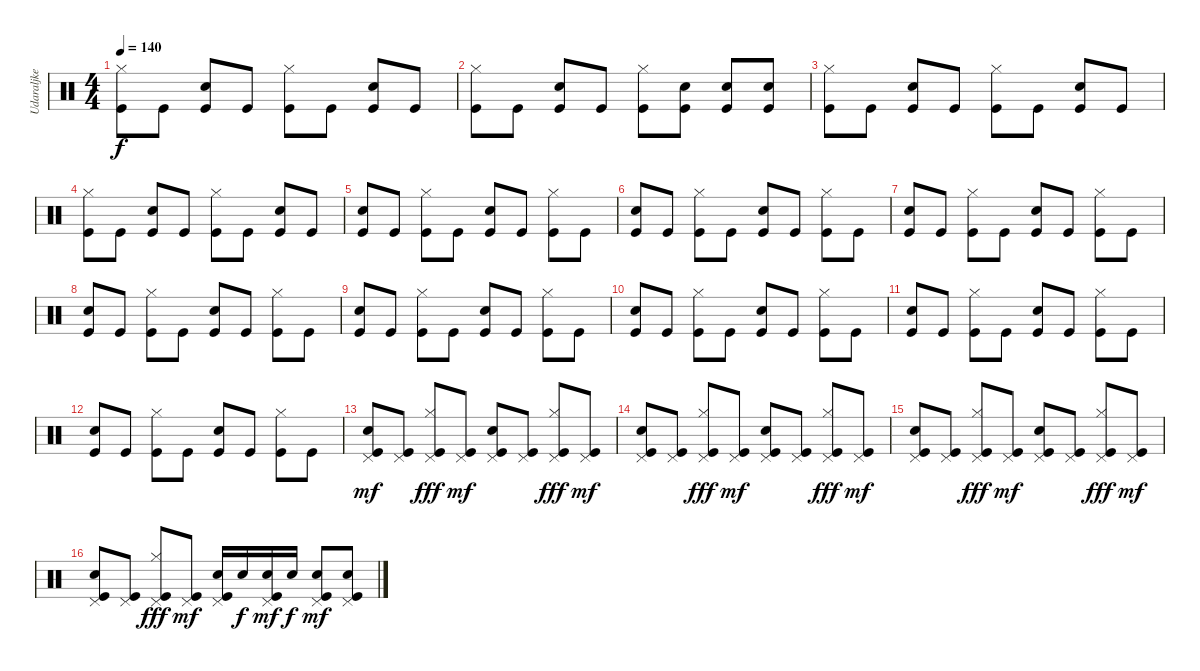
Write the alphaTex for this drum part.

\track ("Udaraljke" "Udaraljke") {instrument percussion}
\staff {score}
\articulation defaults
\ts (4 4)
\tempo 140
\clef neutral
\ks c
("Kick (hit)" "Hi-Hat (closed)").8{dy f} "Kick (hit)".8 ("Kick (hit)" "Snare (hit) 2").8 "Kick (hit)".8 ("Kick (hit)" "Hi-Hat (closed)").8 "Kick (hit)".8 ("Kick (hit)" "Snare (hit) 2").8 "Kick (hit)".8 |
("Kick (hit)" "Hi-Hat (closed)").8 "Kick (hit)".8 ("Kick (hit)" "Snare (hit) 2").8 "Kick (hit)".8 ("Kick (hit)" "Hi-Hat (closed)").8 ("Kick (hit)" "Snare (hit) 2").8 ("Kick (hit)" "Snare (hit) 2").8 ("Kick (hit)" "Snare (hit) 2").8 |
("Kick (hit)" "Hi-Hat (closed)").8 "Kick (hit)".8 ("Kick (hit)" "Snare (hit) 2").8 "Kick (hit)".8 ("Kick (hit)" "Hi-Hat (closed)").8 "Kick (hit)".8 ("Kick (hit)" "Snare (hit) 2").8 "Kick (hit)".8 |
("Kick (hit)" "Hi-Hat (closed)").8 "Kick (hit)".8 ("Kick (hit)" "Snare (hit) 2").8 "Kick (hit)".8 ("Kick (hit)" "Hi-Hat (closed)").8 "Kick (hit)".8 ("Kick (hit)" "Snare (hit) 2").8 "Kick (hit)".8 |
("Kick (hit)" "Snare (hit) 2").8 "Kick (hit)".8 ("Kick (hit)" "Hi-Hat (closed)").8 "Kick (hit)".8 ("Kick (hit)" "Snare (hit) 2").8 "Kick (hit)".8 ("Kick (hit)" "Hi-Hat (closed)").8 "Kick (hit)".8 |
("Kick (hit)" "Snare (hit) 2").8 "Kick (hit)".8 ("Kick (hit)" "Hi-Hat (closed)").8 "Kick (hit)".8 ("Kick (hit)" "Snare (hit) 2").8 "Kick (hit)".8 ("Kick (hit)" "Hi-Hat (closed)").8 "Kick (hit)".8 |
("Kick (hit)" "Snare (hit) 2").8 "Kick (hit)".8 ("Kick (hit)" "Hi-Hat (closed)").8 "Kick (hit)".8 ("Kick (hit)" "Snare (hit) 2").8 "Kick (hit)".8 ("Kick (hit)" "Hi-Hat (closed)").8 "Kick (hit)".8 |
("Kick (hit)" "Snare (hit) 2").8 "Kick (hit)".8 ("Kick (hit)" "Hi-Hat (closed)").8 "Kick (hit)".8 ("Kick (hit)" "Snare (hit) 2").8 "Kick (hit)".8 ("Kick (hit)" "Hi-Hat (closed)").8 "Kick (hit)".8 |
("Kick (hit)" "Snare (hit) 2").8 "Kick (hit)".8 ("Kick (hit)" "Hi-Hat (closed)").8 "Kick (hit)".8 ("Kick (hit)" "Snare (hit) 2").8 "Kick (hit)".8 ("Kick (hit)" "Hi-Hat (closed)").8 "Kick (hit)".8 |
("Kick (hit)" "Snare (hit) 2").8 "Kick (hit)".8 ("Kick (hit)" "Hi-Hat (closed)").8 "Kick (hit)".8 ("Kick (hit)" "Snare (hit) 2").8 "Kick (hit)".8 ("Kick (hit)" "Hi-Hat (closed)").8 "Kick (hit)".8 |
("Kick (hit)" "Snare (hit) 2").8 "Kick (hit)".8 ("Kick (hit)" "Hi-Hat (closed)").8 "Kick (hit)".8 ("Kick (hit)" "Snare (hit) 2").8 "Kick (hit)".8 ("Kick (hit)" "Hi-Hat (closed)").8 "Kick (hit)".8 |
("Kick (hit)" "Snare (hit) 2").8 "Kick (hit)".8 ("Kick (hit)" "Hi-Hat (closed)").8 "Kick (hit)".8 ("Kick (hit)" "Snare (hit) 2").8 "Kick (hit)".8 ("Kick (hit)" "Hi-Hat (closed)").8 "Kick (hit)".8 |
("Kick (hit)" "Pedal Hi-Hat (hit)" "Snare (hit) 2").8{dy mf} ("Kick (hit)" "Pedal Hi-Hat (hit)").8 ("Kick (hit)" "Pedal Hi-Hat (hit)" "Hi-Hat (closed)").8{dy fff} ("Kick (hit)" "Pedal Hi-Hat (hit)").8{dy mf} ("Kick (hit)" "Pedal Hi-Hat (hit)" "Snare (hit) 2").8 ("Kick (hit)" "Pedal Hi-Hat (hit)").8 ("Kick (hit)" "Pedal Hi-Hat (hit)" "Hi-Hat (closed)").8{dy fff} ("Kick (hit)" "Pedal Hi-Hat (hit)").8{dy mf} |
("Kick (hit)" "Pedal Hi-Hat (hit)" "Snare (hit) 2").8 ("Kick (hit)" "Pedal Hi-Hat (hit)").8 ("Kick (hit)" "Pedal Hi-Hat (hit)" "Hi-Hat (closed)").8{dy fff} ("Kick (hit)" "Pedal Hi-Hat (hit)").8{dy mf} ("Kick (hit)" "Pedal Hi-Hat (hit)" "Snare (hit) 2").8 ("Kick (hit)" "Pedal Hi-Hat (hit)").8 ("Kick (hit)" "Pedal Hi-Hat (hit)" "Hi-Hat (closed)").8{dy fff} ("Kick (hit)" "Pedal Hi-Hat (hit)").8{dy mf} |
("Kick (hit)" "Pedal Hi-Hat (hit)" "Snare (hit) 2").8 ("Kick (hit)" "Pedal Hi-Hat (hit)").8 ("Kick (hit)" "Pedal Hi-Hat (hit)" "Hi-Hat (closed)").8{dy fff} ("Kick (hit)" "Pedal Hi-Hat (hit)").8{dy mf} ("Kick (hit)" "Pedal Hi-Hat (hit)" "Snare (hit) 2").8 ("Kick (hit)" "Pedal Hi-Hat (hit)").8 ("Kick (hit)" "Pedal Hi-Hat (hit)" "Hi-Hat (closed)").8{dy fff} ("Kick (hit)" "Pedal Hi-Hat (hit)").8{dy mf} |
("Kick (hit)" "Pedal Hi-Hat (hit)" "Snare (hit) 2").8 ("Kick (hit)" "Pedal Hi-Hat (hit)").8 ("Kick (hit)" "Pedal Hi-Hat (hit)" "Hi-Hat (closed)").8{dy fff} ("Kick (hit)" "Pedal Hi-Hat (hit)").8{dy mf} ("Kick (hit)" "Pedal Hi-Hat (hit)" "Snare (hit) 2").16 "Snare (hit) 2".16{dy f} ("Kick (hit)" "Pedal Hi-Hat (hit)" "Snare (hit) 2").16{dy mf} "Snare (hit) 2".16{dy f} ("Kick (hit)" "Pedal Hi-Hat (hit)" "Snare (hit) 2").8{dy mf} ("Kick (hit)" "Pedal Hi-Hat (hit)" "Snare (hit) 2").8
